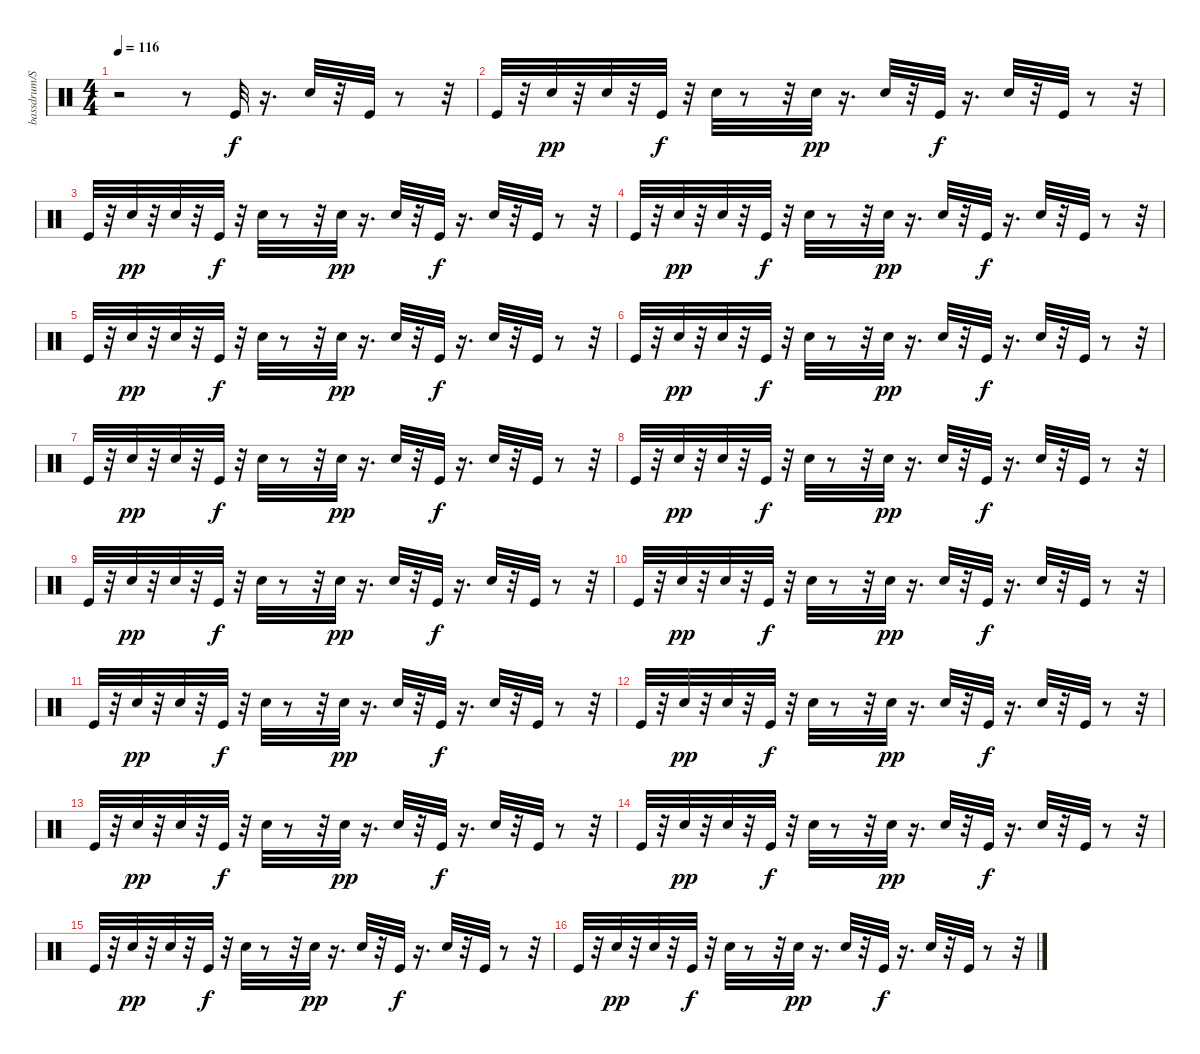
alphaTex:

\track ("bassdrum/SD" "bassdrum/S") {instrument percussion}
\staff {score}
\articulation defaults
\ts (4 4)
\tempo 116
\clef neutral
\ks c
r.2{dy f} r.8 "Kick (hit)".32 r.16{d} "Electric Snare (hit)".32 r.32 "Kick (hit)".32 r.8 r.32 |
"Kick (hit)".32 r.32 "Snare (hit) 2".32{dy pp} r.32 "Snare (hit) 2".32 r.32 "Kick (hit)".32{dy f} r.32 "Electric Snare (hit)".32 r.8 r.32 "Snare (hit) 2".32{dy pp} r.16{d} "Snare (hit) 2".32 r.32 "Kick (hit)".32{dy f} r.16{d} "Electric Snare (hit)".32 r.32 "Kick (hit)".32 r.8 r.32 |
"Kick (hit)".32 r.32 "Snare (hit) 2".32{dy pp} r.32 "Snare (hit) 2".32 r.32 "Kick (hit)".32{dy f} r.32 "Electric Snare (hit)".32 r.8 r.32 "Snare (hit) 2".32{dy pp} r.16{d} "Snare (hit) 2".32 r.32 "Kick (hit)".32{dy f} r.16{d} "Electric Snare (hit)".32 r.32 "Kick (hit)".32 r.8 r.32 |
"Kick (hit)".32 r.32 "Snare (hit) 2".32{dy pp} r.32 "Snare (hit) 2".32 r.32 "Kick (hit)".32{dy f} r.32 "Electric Snare (hit)".32 r.8 r.32 "Snare (hit) 2".32{dy pp} r.16{d} "Snare (hit) 2".32 r.32 "Kick (hit)".32{dy f} r.16{d} "Electric Snare (hit)".32 r.32 "Kick (hit)".32 r.8 r.32 |
"Kick (hit)".32 r.32 "Snare (hit) 2".32{dy pp} r.32 "Snare (hit) 2".32 r.32 "Kick (hit)".32{dy f} r.32 "Electric Snare (hit)".32 r.8 r.32 "Snare (hit) 2".32{dy pp} r.16{d} "Snare (hit) 2".32 r.32 "Kick (hit)".32{dy f} r.16{d} "Electric Snare (hit)".32 r.32 "Kick (hit)".32 r.8 r.32 |
"Kick (hit)".32 r.32 "Snare (hit) 2".32{dy pp} r.32 "Snare (hit) 2".32 r.32 "Kick (hit)".32{dy f} r.32 "Electric Snare (hit)".32 r.8 r.32 "Snare (hit) 2".32{dy pp} r.16{d} "Snare (hit) 2".32 r.32 "Kick (hit)".32{dy f} r.16{d} "Electric Snare (hit)".32 r.32 "Kick (hit)".32 r.8 r.32 |
"Kick (hit)".32 r.32 "Snare (hit) 2".32{dy pp} r.32 "Snare (hit) 2".32 r.32 "Kick (hit)".32{dy f} r.32 "Electric Snare (hit)".32 r.8 r.32 "Snare (hit) 2".32{dy pp} r.16{d} "Snare (hit) 2".32 r.32 "Kick (hit)".32{dy f} r.16{d} "Electric Snare (hit)".32 r.32 "Kick (hit)".32 r.8 r.32 |
"Kick (hit)".32 r.32 "Snare (hit) 2".32{dy pp} r.32 "Snare (hit) 2".32 r.32 "Kick (hit)".32{dy f} r.32 "Electric Snare (hit)".32 r.8 r.32 "Snare (hit) 2".32{dy pp} r.16{d} "Snare (hit) 2".32 r.32 "Kick (hit)".32{dy f} r.16{d} "Electric Snare (hit)".32 r.32 "Kick (hit)".32 r.8 r.32 |
"Kick (hit)".32 r.32 "Snare (hit) 2".32{dy pp} r.32 "Snare (hit) 2".32 r.32 "Kick (hit)".32{dy f} r.32 "Electric Snare (hit)".32 r.8 r.32 "Snare (hit) 2".32{dy pp} r.16{d} "Snare (hit) 2".32 r.32 "Kick (hit)".32{dy f} r.16{d} "Electric Snare (hit)".32 r.32 "Kick (hit)".32 r.8 r.32 |
"Kick (hit)".32 r.32 "Snare (hit) 2".32{dy pp} r.32 "Snare (hit) 2".32 r.32 "Kick (hit)".32{dy f} r.32 "Electric Snare (hit)".32 r.8 r.32 "Snare (hit) 2".32{dy pp} r.16{d} "Snare (hit) 2".32 r.32 "Kick (hit)".32{dy f} r.16{d} "Electric Snare (hit)".32 r.32 "Kick (hit)".32 r.8 r.32 |
"Kick (hit)".32 r.32 "Snare (hit) 2".32{dy pp} r.32 "Snare (hit) 2".32 r.32 "Kick (hit)".32{dy f} r.32 "Electric Snare (hit)".32 r.8 r.32 "Snare (hit) 2".32{dy pp} r.16{d} "Snare (hit) 2".32 r.32 "Kick (hit)".32{dy f} r.16{d} "Electric Snare (hit)".32 r.32 "Kick (hit)".32 r.8 r.32 |
"Kick (hit)".32 r.32 "Snare (hit) 2".32{dy pp} r.32 "Snare (hit) 2".32 r.32 "Kick (hit)".32{dy f} r.32 "Electric Snare (hit)".32 r.8 r.32 "Snare (hit) 2".32{dy pp} r.16{d} "Snare (hit) 2".32 r.32 "Kick (hit)".32{dy f} r.16{d} "Electric Snare (hit)".32 r.32 "Kick (hit)".32 r.8 r.32 |
"Kick (hit)".32 r.32 "Snare (hit) 2".32{dy pp} r.32 "Snare (hit) 2".32 r.32 "Kick (hit)".32{dy f} r.32 "Electric Snare (hit)".32 r.8 r.32 "Snare (hit) 2".32{dy pp} r.16{d} "Snare (hit) 2".32 r.32 "Kick (hit)".32{dy f} r.16{d} "Electric Snare (hit)".32 r.32 "Kick (hit)".32 r.8 r.32 |
"Kick (hit)".32 r.32 "Snare (hit) 2".32{dy pp} r.32 "Snare (hit) 2".32 r.32 "Kick (hit)".32{dy f} r.32 "Electric Snare (hit)".32 r.8 r.32 "Snare (hit) 2".32{dy pp} r.16{d} "Snare (hit) 2".32 r.32 "Kick (hit)".32{dy f} r.16{d} "Electric Snare (hit)".32 r.32 "Kick (hit)".32 r.8 r.32 |
"Kick (hit)".32 r.32 "Snare (hit) 2".32{dy pp} r.32 "Snare (hit) 2".32 r.32 "Kick (hit)".32{dy f} r.32 "Electric Snare (hit)".32 r.8 r.32 "Snare (hit) 2".32{dy pp} r.16{d} "Snare (hit) 2".32 r.32 "Kick (hit)".32{dy f} r.16{d} "Electric Snare (hit)".32 r.32 "Kick (hit)".32 r.8 r.32 |
"Kick (hit)".32 r.32 "Snare (hit) 2".32{dy pp} r.32 "Snare (hit) 2".32 r.32 "Kick (hit)".32{dy f} r.32 "Electric Snare (hit)".32 r.8 r.32 "Snare (hit) 2".32{dy pp} r.16{d} "Snare (hit) 2".32 r.32 "Kick (hit)".32{dy f} r.16{d} "Electric Snare (hit)".32 r.32 "Kick (hit)".32 r.8 r.32
